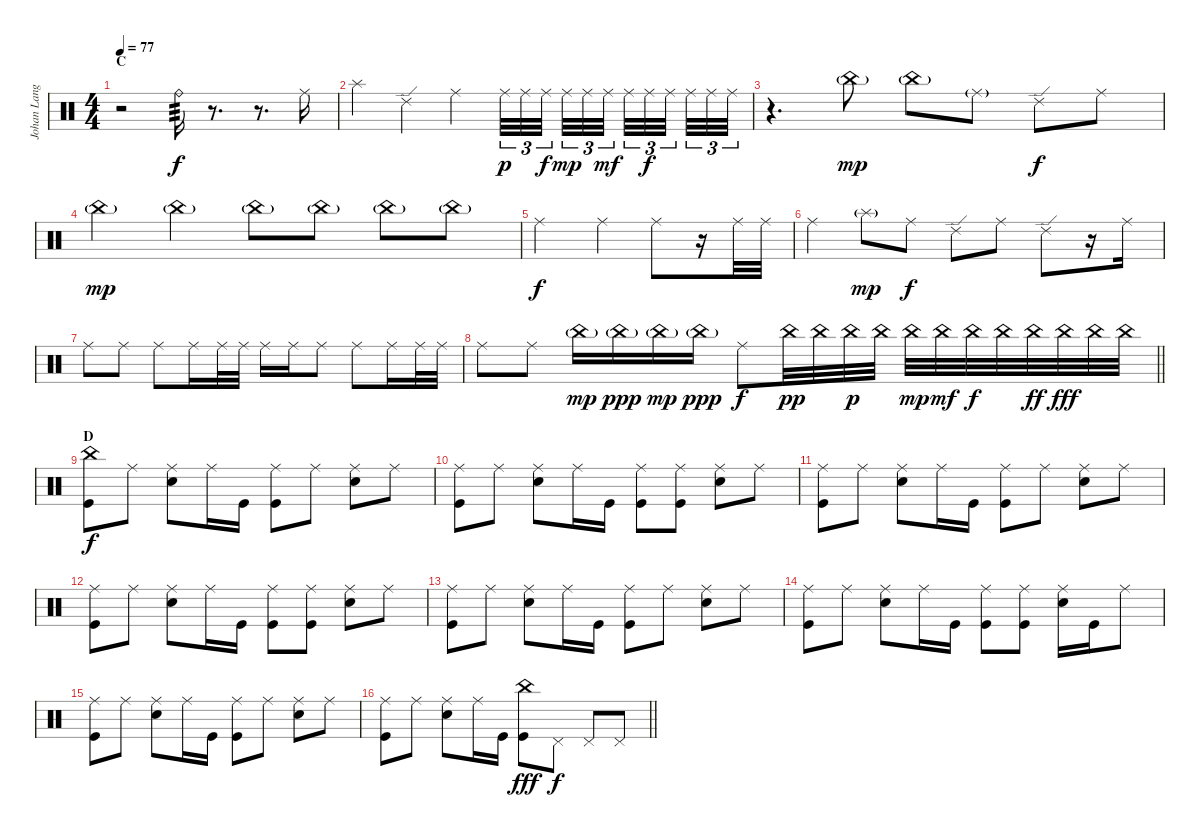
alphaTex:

\track ("Johan Langell - drums" "Johan Lang") {instrument percussion}
\staff {score}
\articulation defaults
\ts (4 4)
\section ("" "C")
\tempo 77
\clef neutral
\ks c
r.2{dy f} "Ride (bell)".16{tp 3} r.8{d} r.8{d} "Ride (middle)".16 |
"Splash (hit)".4 "Ride (edge) 2".4 "Ride (middle)".4 "Ride (middle)".32{tu (3 2) dy p} "Ride (middle)".32{tu (3 2)} "Ride (middle)".32{tu (3 2) dy f} "Ride (middle)".32{tu (3 2) dy mp} "Ride (middle)".32{tu (3 2)} "Ride (middle)".32{tu (3 2) dy mf} "Ride (middle)".32{tu (3 2)} "Ride (middle)".32{tu (3 2) dy f} "Ride (middle)".32{tu (3 2)} "Ride (middle)".32{tu (3 2)} "Ride (middle)".32{tu (3 2)} "Ride (middle)".32{tu (3 2)} |
r.4{d} "China (hit)"{g}.8{dy mp} "China (hit)"{g}.8 "Ride (middle)"{g}.8 "Ride (edge) 2".8{dy f} "Ride (middle)".8 |
"China (hit)"{g}.4{dy mp} "China (hit)"{g}.4 "China (hit)"{g}.8 "China (hit)"{g}.8 "China (hit)"{g}.8 "China (hit)"{g}.8 |
"Ride (middle)".2{dy f} "Ride (middle)".4 "Ride (middle)".8 r.16 "Ride (middle)".32 "Ride (middle)".32 |
"Ride (middle)".4 "Splash (hit)"{g}.8{dy mp} "Ride (middle)".8{dy f} "Ride (edge) 2".8 "Ride (middle)".8 "Ride (edge) 2".8 r.16 "Ride (middle)".16 |
"Ride (middle)".8 "Ride (middle)".8 "Ride (middle)".8 "Ride (middle)".16 "Ride (middle)".32 "Ride (middle)".32 "Ride (middle)".16 "Ride (middle)".16 "Ride (middle)".8 "Ride (middle)".8 "Ride (middle)".16 "Ride (middle)".32 "Ride (middle)".32 |
\barLineRight lightlight "Ride (middle)".8 "Ride (middle)".8 "China (hit)"{g}.16{dy mp} "China (hit)"{g}.16{dy ppp} "China (hit)"{g}.16{dy mp} "China (hit)"{g}.16{dy ppp} "Ride (middle)".8{dy f} "China (hit)".32{dy pp} "China (hit)".32 "China (hit)".32{dy p} "China (hit)".32 "China (hit)".32{dy mp} "China (hit)".32{dy mf} "China (hit)".32{dy f} "China (hit)".32 "China (hit)".32{dy ff} "China (hit)".32{dy fff} "China (hit)".32 "China (hit)".32
|
\section ("" "D")
("China (hit)" "Kick (hit)").8{dy f} "Ride (middle)".8 ("Ride (middle)" "Electric Snare (hit)").8 "Ride (middle)".16 "Kick (hit)".16 ("Ride (middle)" "Kick (hit)").8 "Ride (middle)".8 ("Ride (middle)" "Electric Snare (hit)").8 "Ride (middle)".8 |
("Ride (middle)" "Kick (hit)").8 "Ride (middle)".8 ("Ride (middle)" "Electric Snare (hit)").8 "Ride (middle)".16 "Kick (hit)".16 ("Ride (middle)" "Kick (hit)").8 ("Ride (middle)" "Kick (hit)").8 ("Ride (middle)" "Electric Snare (hit)").8 "Ride (middle)".8 |
("Ride (middle)" "Kick (hit)").8 "Ride (middle)".8 ("Ride (middle)" "Electric Snare (hit)").8 "Ride (middle)".16 "Kick (hit)".16 ("Ride (middle)" "Kick (hit)").8 "Ride (middle)".8 ("Ride (middle)" "Electric Snare (hit)").8 "Ride (middle)".8 |
("Ride (middle)" "Kick (hit)").8 "Ride (middle)".8 ("Ride (middle)" "Electric Snare (hit)").8 "Ride (middle)".16 "Kick (hit)".16 ("Ride (middle)" "Kick (hit)").8 ("Ride (middle)" "Kick (hit)").8 ("Ride (middle)" "Electric Snare (hit)").8 "Ride (middle)".8 |
("Ride (middle)" "Kick (hit)").8 "Ride (middle)".8 ("Ride (middle)" "Electric Snare (hit)").8 "Ride (middle)".16 "Kick (hit)".16 ("Ride (middle)" "Kick (hit)").8 "Ride (middle)".8 ("Ride (middle)" "Electric Snare (hit)").8 "Ride (middle)".8 |
("Ride (middle)" "Kick (hit)").8 "Ride (middle)".8 ("Ride (middle)" "Electric Snare (hit)").8 "Ride (middle)".16 "Kick (hit)".16 ("Ride (middle)" "Kick (hit)").8 ("Ride (middle)" "Kick (hit)").8 ("Ride (middle)" "Electric Snare (hit)").16 "Kick (hit)".16 "Ride (middle)".8 |
("Ride (middle)" "Kick (hit)").8 "Ride (middle)".8 ("Ride (middle)" "Electric Snare (hit)").8 "Ride (middle)".16 "Kick (hit)".16 ("Ride (middle)" "Kick (hit)").8 "Ride (middle)".8 ("Ride (middle)" "Electric Snare (hit)").8 "Ride (middle)".8 |
\barLineRight lightlight
("Ride (middle)" "Kick (hit)").8 "Ride (middle)".8 ("Ride (middle)" "Electric Snare (hit)").8 "Ride (middle)".16 "Kick (hit)".16 ("China (hit)" "Kick (hit)").8{dy fff} "Pedal Hi-Hat (hit)".8{dy f} "Pedal Hi-Hat (hit)".8 "Pedal Hi-Hat (hit)".8
